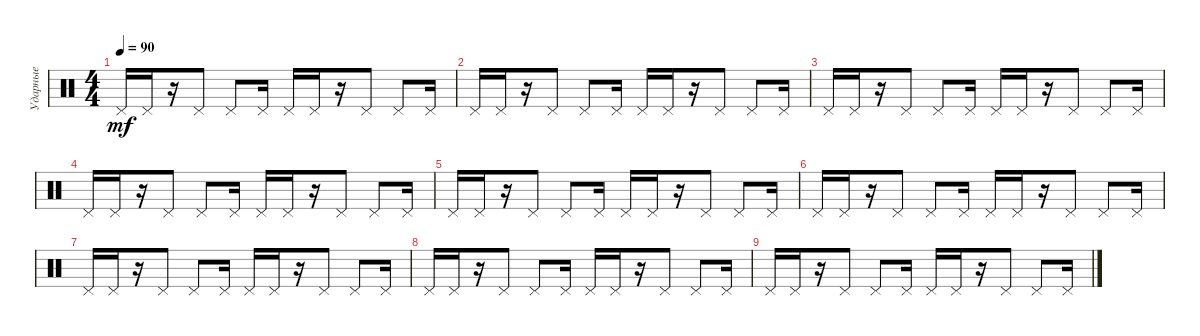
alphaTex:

\track ("Ударные" "Ударные") {instrument percussion}
\staff {score}
\articulation defaults
\ts (4 4)
\tempo 90
\clef neutral
\ks c "Pedal Hi-Hat (hit)".16{dy mf} "Pedal Hi-Hat (hit)".16
r.16 "Pedal Hi-Hat (hit)".8 "Pedal Hi-Hat (hit)".8 "Pedal Hi-Hat (hit)".16 "Pedal Hi-Hat (hit)".16 "Pedal Hi-Hat (hit)".16 r.16 "Pedal Hi-Hat (hit)".8 "Pedal Hi-Hat (hit)".8 "Pedal Hi-Hat (hit)".16 |
"Pedal Hi-Hat (hit)".16 "Pedal Hi-Hat (hit)".16 r.16 "Pedal Hi-Hat (hit)".8 "Pedal Hi-Hat (hit)".8 "Pedal Hi-Hat (hit)".16 "Pedal Hi-Hat (hit)".16 "Pedal Hi-Hat (hit)".16 r.16 "Pedal Hi-Hat (hit)".8 "Pedal Hi-Hat (hit)".8 "Pedal Hi-Hat (hit)".16 |
"Pedal Hi-Hat (hit)".16 "Pedal Hi-Hat (hit)".16 r.16 "Pedal Hi-Hat (hit)".8 "Pedal Hi-Hat (hit)".8 "Pedal Hi-Hat (hit)".16 "Pedal Hi-Hat (hit)".16 "Pedal Hi-Hat (hit)".16 r.16 "Pedal Hi-Hat (hit)".8 "Pedal Hi-Hat (hit)".8 "Pedal Hi-Hat (hit)".16 |
"Pedal Hi-Hat (hit)".16 "Pedal Hi-Hat (hit)".16 r.16 "Pedal Hi-Hat (hit)".8 "Pedal Hi-Hat (hit)".8 "Pedal Hi-Hat (hit)".16 "Pedal Hi-Hat (hit)".16 "Pedal Hi-Hat (hit)".16 r.16 "Pedal Hi-Hat (hit)".8 "Pedal Hi-Hat (hit)".8 "Pedal Hi-Hat (hit)".16 |
"Pedal Hi-Hat (hit)".16 "Pedal Hi-Hat (hit)".16 r.16 "Pedal Hi-Hat (hit)".8 "Pedal Hi-Hat (hit)".8 "Pedal Hi-Hat (hit)".16 "Pedal Hi-Hat (hit)".16 "Pedal Hi-Hat (hit)".16 r.16 "Pedal Hi-Hat (hit)".8 "Pedal Hi-Hat (hit)".8 "Pedal Hi-Hat (hit)".16 |
"Pedal Hi-Hat (hit)".16 "Pedal Hi-Hat (hit)".16 r.16 "Pedal Hi-Hat (hit)".8 "Pedal Hi-Hat (hit)".8 "Pedal Hi-Hat (hit)".16 "Pedal Hi-Hat (hit)".16 "Pedal Hi-Hat (hit)".16 r.16 "Pedal Hi-Hat (hit)".8 "Pedal Hi-Hat (hit)".8 "Pedal Hi-Hat (hit)".16 |
"Pedal Hi-Hat (hit)".16 "Pedal Hi-Hat (hit)".16 r.16 "Pedal Hi-Hat (hit)".8 "Pedal Hi-Hat (hit)".8 "Pedal Hi-Hat (hit)".16 "Pedal Hi-Hat (hit)".16 "Pedal Hi-Hat (hit)".16 r.16 "Pedal Hi-Hat (hit)".8 "Pedal Hi-Hat (hit)".8 "Pedal Hi-Hat (hit)".16 |
"Pedal Hi-Hat (hit)".16 "Pedal Hi-Hat (hit)".16 r.16 "Pedal Hi-Hat (hit)".8 "Pedal Hi-Hat (hit)".8 "Pedal Hi-Hat (hit)".16 "Pedal Hi-Hat (hit)".16 "Pedal Hi-Hat (hit)".16 r.16 "Pedal Hi-Hat (hit)".8 "Pedal Hi-Hat (hit)".8 "Pedal Hi-Hat (hit)".16 |
"Pedal Hi-Hat (hit)".16 "Pedal Hi-Hat (hit)".16 r.16 "Pedal Hi-Hat (hit)".8 "Pedal Hi-Hat (hit)".8 "Pedal Hi-Hat (hit)".16 "Pedal Hi-Hat (hit)".16 "Pedal Hi-Hat (hit)".16 r.16 "Pedal Hi-Hat (hit)".8 "Pedal Hi-Hat (hit)".8 "Pedal Hi-Hat (hit)".16
